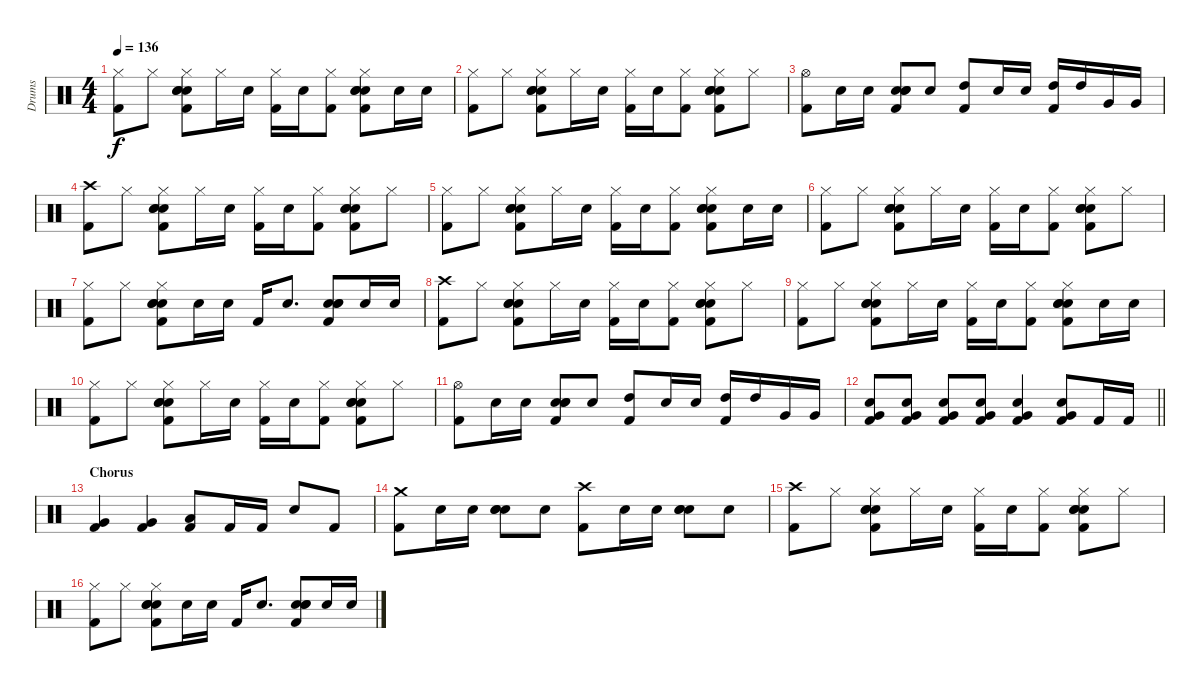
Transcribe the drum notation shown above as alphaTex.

\track ("Drums" "Drums") {instrument percussion}
\staff {score}
\articulation defaults
\ts (4 4)
\tempo 136
\clef neutral
\ks c
("Hi-Hat (closed)" "Kick (hit) 2").8{dy f} "Hi-Hat (closed)".8 ("Hi-Hat (closed)" "Electric Snare (hit)" "Electric Snare (hit)" "Electric Snare (hit)" "Kick (hit) 2").8 "Hi-Hat (closed)".16 "Electric Snare (hit)".16 ("Hi-Hat (closed)" "Kick (hit) 2").16 "Electric Snare (hit)".16 ("Hi-Hat (closed)" "Kick (hit) 2").8 ("Hi-Hat (closed)" "Electric Snare (hit)" "Electric Snare (hit)" "Electric Snare (hit)" "Kick (hit) 2").8 "Electric Snare (hit)".16 "Electric Snare (hit)".16 |
("Hi-Hat (closed)" "Kick (hit) 2").8 "Hi-Hat (closed)".8 ("Hi-Hat (closed)" "Electric Snare (hit)" "Electric Snare (hit)" "Electric Snare (hit)" "Kick (hit) 2").8 "Hi-Hat (closed)".16 "Electric Snare (hit)".16 ("Hi-Hat (closed)" "Kick (hit) 2").16 "Electric Snare (hit)".16 ("Hi-Hat (closed)" "Kick (hit) 2").8 ("Hi-Hat (closed)" "Electric Snare (hit)" "Electric Snare (hit)" "Electric Snare (hit)" "Kick (hit) 2").8 "Hi-Hat (closed)".8 |
("Hi-Hat (open)" "Kick (hit) 2").8 "Electric Snare (hit)".16 "Electric Snare (hit)".16 ("Electric Snare (hit)" "Electric Snare (hit)" "Electric Snare (hit)" "Kick (hit) 2").8 "Electric Snare (hit)".8 ("High Tom (hit)" "Kick (hit) 2").8 "Electric Snare (hit)".16 "Electric Snare (hit)".16 ("High Tom (hit)" "Kick (hit) 2").16 "High Tom (hit)".16 "Very Low Tom (hit)".16 "Very Low Tom (hit)".16 |
("Crash high (hit)" "Kick (hit) 2").8 "Hi-Hat (closed)".8 ("Hi-Hat (closed)" "Electric Snare (hit)" "Electric Snare (hit)" "Electric Snare (hit)" "Kick (hit) 2").8 "Hi-Hat (closed)".16 "Electric Snare (hit)".16 ("Hi-Hat (closed)" "Kick (hit) 2").16 "Electric Snare (hit)".16 ("Hi-Hat (closed)" "Kick (hit) 2").8 ("Hi-Hat (closed)" "Electric Snare (hit)" "Electric Snare (hit)" "Electric Snare (hit)" "Kick (hit) 2").8 "Hi-Hat (closed)".8 |
("Hi-Hat (closed)" "Kick (hit) 2").8 "Hi-Hat (closed)".8 ("Hi-Hat (closed)" "Electric Snare (hit)" "Electric Snare (hit)" "Electric Snare (hit)" "Kick (hit) 2").8 "Hi-Hat (closed)".16 "Electric Snare (hit)".16 ("Hi-Hat (closed)" "Kick (hit) 2").16 "Electric Snare (hit)".16 ("Hi-Hat (closed)" "Kick (hit) 2").8 ("Hi-Hat (closed)" "Electric Snare (hit)" "Electric Snare (hit)" "Electric Snare (hit)" "Kick (hit) 2").8 "Electric Snare (hit)".16 "Electric Snare (hit)".16 |
("Hi-Hat (closed)" "Kick (hit) 2").8 "Hi-Hat (closed)".8 ("Hi-Hat (closed)" "Electric Snare (hit)" "Electric Snare (hit)" "Electric Snare (hit)" "Kick (hit) 2").8 "Hi-Hat (closed)".16 "Electric Snare (hit)".16 ("Hi-Hat (closed)" "Kick (hit) 2").16 "Electric Snare (hit)".16 ("Hi-Hat (closed)" "Kick (hit) 2").8 ("Hi-Hat (closed)" "Electric Snare (hit)" "Electric Snare (hit)" "Electric Snare (hit)" "Kick (hit) 2").8 "Hi-Hat (closed)".8 |
("Hi-Hat (closed)" "Kick (hit) 2").8 "Hi-Hat (closed)".8 ("Hi-Hat (closed)" "Electric Snare (hit)" "Electric Snare (hit)" "Electric Snare (hit)" "Kick (hit) 2").8 "Electric Snare (hit)".16 "Electric Snare (hit)".16 "Kick (hit) 2".16 "Electric Snare (hit)".8{d} ("Electric Snare (hit)" "Electric Snare (hit)" "Electric Snare (hit)" "Kick (hit) 2").8 "Electric Snare (hit)".16 "Electric Snare (hit)".16 |
("Crash high (hit)" "Kick (hit) 2").8 "Hi-Hat (closed)".8 ("Hi-Hat (closed)" "Electric Snare (hit)" "Electric Snare (hit)" "Electric Snare (hit)" "Kick (hit) 2").8 "Hi-Hat (closed)".16 "Electric Snare (hit)".16 ("Hi-Hat (closed)" "Kick (hit) 2").16 "Electric Snare (hit)".16 ("Hi-Hat (closed)" "Kick (hit) 2").8 ("Hi-Hat (closed)" "Electric Snare (hit)" "Electric Snare (hit)" "Electric Snare (hit)" "Kick (hit) 2").8 "Hi-Hat (closed)".8 |
("Hi-Hat (closed)" "Kick (hit) 2").8 "Hi-Hat (closed)".8 ("Hi-Hat (closed)" "Electric Snare (hit)" "Electric Snare (hit)" "Electric Snare (hit)" "Kick (hit) 2").8 "Hi-Hat (closed)".16 "Electric Snare (hit)".16 ("Hi-Hat (closed)" "Kick (hit) 2").16 "Electric Snare (hit)".16 ("Hi-Hat (closed)" "Kick (hit) 2").8 ("Hi-Hat (closed)" "Electric Snare (hit)" "Electric Snare (hit)" "Electric Snare (hit)" "Kick (hit) 2").8 "Electric Snare (hit)".16 "Electric Snare (hit)".16 |
("Hi-Hat (closed)" "Kick (hit) 2").8 "Hi-Hat (closed)".8 ("Hi-Hat (closed)" "Electric Snare (hit)" "Electric Snare (hit)" "Electric Snare (hit)" "Kick (hit) 2").8 "Hi-Hat (closed)".16 "Electric Snare (hit)".16 ("Hi-Hat (closed)" "Kick (hit) 2").16 "Electric Snare (hit)".16 ("Hi-Hat (closed)" "Kick (hit) 2").8 ("Hi-Hat (closed)" "Electric Snare (hit)" "Electric Snare (hit)" "Electric Snare (hit)" "Kick (hit) 2").8 "Hi-Hat (closed)".8 |
("Hi-Hat (open)" "Kick (hit) 2").8 "Electric Snare (hit)".16 "Electric Snare (hit)".16 ("Electric Snare (hit)" "Electric Snare (hit)" "Electric Snare (hit)" "Kick (hit) 2").8 "Electric Snare (hit)".8 ("High Tom (hit)" "Kick (hit) 2").8 "Electric Snare (hit)".16 "Electric Snare (hit)".16 ("High Tom (hit)" "Kick (hit) 2").16 "High Tom (hit)".16 "Very Low Tom (hit)".16 "Very Low Tom (hit)".16 |
\barLineRight lightlight
("Very Low Tom (hit)" "Electric Snare (hit)" "Kick (hit) 2").8 ("Very Low Tom (hit)" "Electric Snare (hit)" "Kick (hit) 2").8 ("Very Low Tom (hit)" "Electric Snare (hit)" "Kick (hit) 2").8 ("Very Low Tom (hit)" "Electric Snare (hit)" "Kick (hit) 2").8 ("Very Low Tom (hit)" "Electric Snare (hit)" "Kick (hit) 2").4 ("Very Low Tom (hit)" "Electric Snare (hit)" "Kick (hit) 2").8 "Kick (hit) 2".16 "Kick (hit) 2".16 |
\section ("" "Chorus")
("Very Low Tom (hit)" "Kick (hit) 2").4 ("Very Low Tom (hit)" "Kick (hit) 2").4 ("Low Tom (hit)" "Kick (hit) 2").8 "Kick (hit) 2".16 "Kick (hit) 2".16 "Electric Snare (hit)".8 "Kick (hit) 2".8 |
("Crash medium (hit)" "Kick (hit) 2").8 "Electric Snare (hit)".16 "Electric Snare (hit)".16 ("Electric Snare (hit)" "Electric Snare (hit)" "Electric Snare (hit)").8 "Electric Snare (hit)".8 ("Crash high (hit)" "Kick (hit) 2").8 "Electric Snare (hit)".16 "Electric Snare (hit)".16 ("Electric Snare (hit)" "Electric Snare (hit)" "Electric Snare (hit)").8 "Electric Snare (hit)".8 |
("Crash high (hit)" "Kick (hit) 2").8 "Hi-Hat (closed)".8 ("Hi-Hat (closed)" "Electric Snare (hit)" "Electric Snare (hit)" "Electric Snare (hit)" "Kick (hit) 2").8 "Hi-Hat (closed)".16 "Electric Snare (hit)".16 ("Hi-Hat (closed)" "Kick (hit) 2").16 "Electric Snare (hit)".16 ("Hi-Hat (closed)" "Kick (hit) 2").8 ("Hi-Hat (closed)" "Electric Snare (hit)" "Electric Snare (hit)" "Electric Snare (hit)" "Kick (hit) 2").8 "Hi-Hat (closed)".8 |
("Hi-Hat (closed)" "Kick (hit) 2").8 "Hi-Hat (closed)".8 ("Hi-Hat (closed)" "Electric Snare (hit)" "Electric Snare (hit)" "Electric Snare (hit)" "Kick (hit) 2").8 "Electric Snare (hit)".16 "Electric Snare (hit)".16 "Kick (hit) 2".16 "Electric Snare (hit)".8{d} ("Electric Snare (hit)" "Electric Snare (hit)" "Electric Snare (hit)" "Kick (hit) 2").8 "Electric Snare (hit)".16 "Electric Snare (hit)".16
